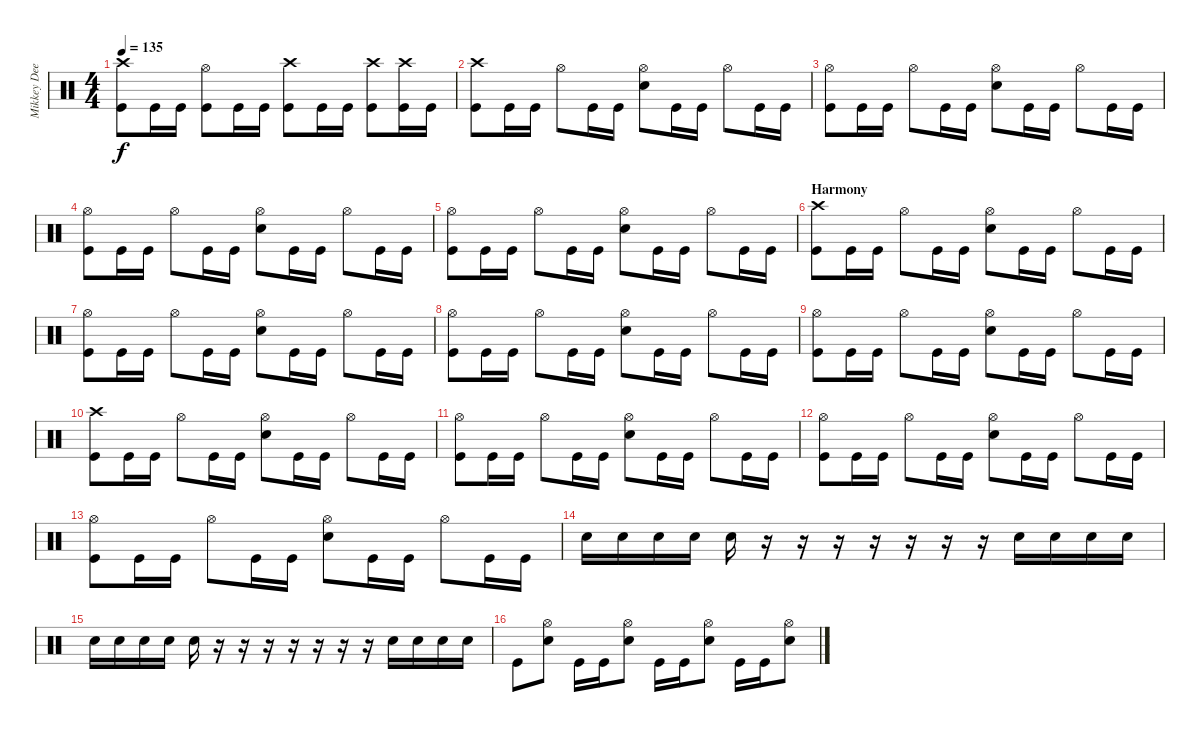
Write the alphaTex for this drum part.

\track ("Mikkey Dee - Drums" "Mikkey Dee") {instrument percussion}
\staff {score}
\articulation defaults
\ts (4 4)
\tempo 135
\clef neutral
\ks c
("Crash high (hit)" "Kick (hit)").8{dy f} "Kick (hit)".16 "Kick (hit)".16 ("Hi-Hat (open)" "Kick (hit)").8 "Kick (hit)".16 "Kick (hit)".16 ("Crash high (hit)" "Kick (hit)").8 "Kick (hit)".16 "Kick (hit)".16 ("Crash high (hit)" "Kick (hit)").8 ("Crash high (hit)" "Kick (hit)").16 "Kick (hit)".16 |
("Crash high (hit)" "Kick (hit)").8 "Kick (hit)".16 "Kick (hit)".16 "Hi-Hat (open)".8 "Kick (hit)".16 "Kick (hit)".16 ("Hi-Hat (open)" "Snare (hit) 2").8 "Kick (hit)".16 "Kick (hit)".16 "Hi-Hat (open)".8 "Kick (hit)".16 "Kick (hit)".16 |
("Hi-Hat (open)" "Kick (hit)").8 "Kick (hit)".16 "Kick (hit)".16 "Hi-Hat (open)".8 "Kick (hit)".16 "Kick (hit)".16 ("Hi-Hat (open)" "Snare (hit) 2").8 "Kick (hit)".16 "Kick (hit)".16 "Hi-Hat (open)".8 "Kick (hit)".16 "Kick (hit)".16 |
("Hi-Hat (open)" "Kick (hit)").8 "Kick (hit)".16 "Kick (hit)".16 "Hi-Hat (open)".8 "Kick (hit)".16 "Kick (hit)".16 ("Hi-Hat (open)" "Snare (hit) 2").8 "Kick (hit)".16 "Kick (hit)".16 "Hi-Hat (open)".8 "Kick (hit)".16 "Kick (hit)".16 |
("Hi-Hat (open)" "Kick (hit)").8 "Kick (hit)".16 "Kick (hit)".16 "Hi-Hat (open)".8 "Kick (hit)".16 "Kick (hit)".16 ("Hi-Hat (open)" "Snare (hit) 2").8 "Kick (hit)".16 "Kick (hit)".16 "Hi-Hat (open)".8 "Kick (hit)".16 "Kick (hit)".16 |
\section ("" "Harmony")
("Crash high (hit)" "Kick (hit)").8 "Kick (hit)".16 "Kick (hit)".16 "Hi-Hat (open)".8 "Kick (hit)".16 "Kick (hit)".16 ("Hi-Hat (open)" "Snare (hit) 2").8 "Kick (hit)".16 "Kick (hit)".16 "Hi-Hat (open)".8 "Kick (hit)".16 "Kick (hit)".16 |
("Hi-Hat (open)" "Kick (hit)").8 "Kick (hit)".16 "Kick (hit)".16 "Hi-Hat (open)".8 "Kick (hit)".16 "Kick (hit)".16 ("Hi-Hat (open)" "Snare (hit) 2").8 "Kick (hit)".16 "Kick (hit)".16 "Hi-Hat (open)".8 "Kick (hit)".16 "Kick (hit)".16 |
("Hi-Hat (open)" "Kick (hit)").8 "Kick (hit)".16 "Kick (hit)".16 "Hi-Hat (open)".8 "Kick (hit)".16 "Kick (hit)".16 ("Hi-Hat (open)" "Snare (hit) 2").8 "Kick (hit)".16 "Kick (hit)".16 "Hi-Hat (open)".8 "Kick (hit)".16 "Kick (hit)".16 |
("Hi-Hat (open)" "Kick (hit)").8 "Kick (hit)".16 "Kick (hit)".16 "Hi-Hat (open)".8 "Kick (hit)".16 "Kick (hit)".16 ("Hi-Hat (open)" "Snare (hit) 2").8 "Kick (hit)".16 "Kick (hit)".16 "Hi-Hat (open)".8 "Kick (hit)".16 "Kick (hit)".16 |
("Crash high (hit)" "Kick (hit)").8 "Kick (hit)".16 "Kick (hit)".16 "Hi-Hat (open)".8 "Kick (hit)".16 "Kick (hit)".16 ("Hi-Hat (open)" "Snare (hit) 2").8 "Kick (hit)".16 "Kick (hit)".16 "Hi-Hat (open)".8 "Kick (hit)".16 "Kick (hit)".16 |
("Hi-Hat (open)" "Kick (hit)").8 "Kick (hit)".16 "Kick (hit)".16 "Hi-Hat (open)".8 "Kick (hit)".16 "Kick (hit)".16 ("Hi-Hat (open)" "Snare (hit) 2").8 "Kick (hit)".16 "Kick (hit)".16 "Hi-Hat (open)".8 "Kick (hit)".16 "Kick (hit)".16 |
("Hi-Hat (open)" "Kick (hit)").8 "Kick (hit)".16 "Kick (hit)".16 "Hi-Hat (open)".8 "Kick (hit)".16 "Kick (hit)".16 ("Hi-Hat (open)" "Snare (hit) 2").8 "Kick (hit)".16 "Kick (hit)".16 "Hi-Hat (open)".8 "Kick (hit)".16 "Kick (hit)".16 |
("Hi-Hat (open)" "Kick (hit)").8 "Kick (hit)".16 "Kick (hit)".16 "Hi-Hat (open)".8 "Kick (hit)".16 "Kick (hit)".16 ("Hi-Hat (open)" "Snare (hit) 2").8 "Kick (hit)".16 "Kick (hit)".16 "Hi-Hat (open)".8 "Kick (hit)".16 "Kick (hit)".16 |
"Snare (hit) 2".16 "Snare (hit) 2".16 "Snare (hit) 2".16 "Snare (hit) 2".16 "Snare (hit) 2".16 r.16 r.16 r.16 r.16 r.16 r.16 r.16 "Snare (hit) 2".16 "Snare (hit) 2".16 "Snare (hit) 2".16 "Snare (hit) 2".16 |
"Snare (hit) 2".16 "Snare (hit) 2".16 "Snare (hit) 2".16 "Snare (hit) 2".16 "Snare (hit) 2".16 r.16 r.16 r.16 r.16 r.16 r.16 r.16 "Snare (hit) 2".16 "Snare (hit) 2".16 "Snare (hit) 2".16 "Snare (hit) 2".16 |
\section ("" "")
"Kick (hit)".8 ("Snare (hit) 2" "Hi-Hat (open)").8 "Kick (hit)".16 "Kick (hit)".16 ("Snare (hit) 2" "Hi-Hat (open)").8 "Kick (hit)".16 "Kick (hit)".16 ("Snare (hit) 2" "Hi-Hat (open)").8 "Kick (hit)".16 "Kick (hit)".16 ("Snare (hit) 2" "Hi-Hat (open)").8
